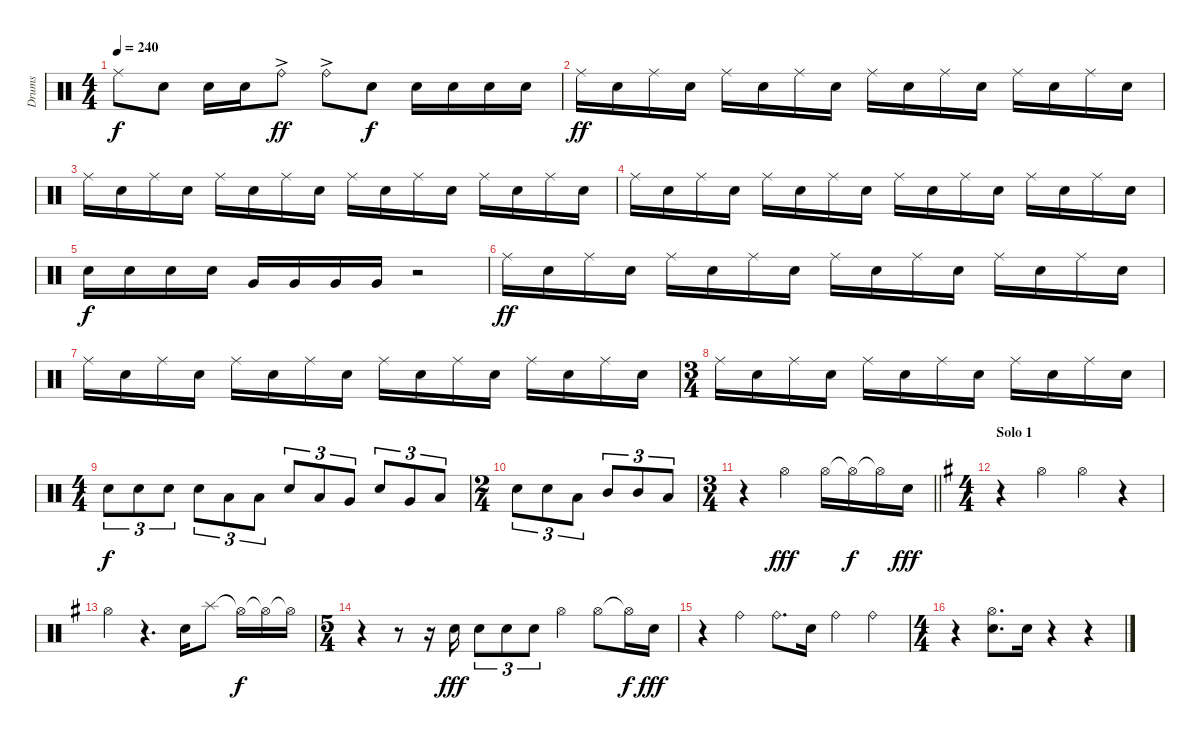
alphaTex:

\track ("Drums" "Drums") {instrument percussion}
\staff {score}
\articulation defaults
\ts (4 4)
\tempo 240
\clef neutral
\ks c "Ride (middle)".8{dy f volume 14} "Electric Snare (hit)".8 "Electric Snare (hit)".16 "Electric Snare (hit)".16 "Ride (bell)"{ac}.8{dy ff} "Ride (bell)"{ac}.8 "Electric Snare (hit)".8{dy f} "Electric Snare (hit)".16 "Electric Snare (hit)".16 "Electric Snare (hit)".16 "Electric Snare (hit)".16
|
"Ride (middle)".16{dy ff} "Electric Snare (hit)".16 "Ride (middle)".16 "Electric Snare (hit)".16 "Ride (middle)".16 "Electric Snare (hit)".16 "Ride (middle)".16 "Electric Snare (hit)".16 "Ride (middle)".16 "Electric Snare (hit)".16 "Ride (middle)".16 "Electric Snare (hit)".16 "Ride (middle)".16 "Electric Snare (hit)".16 "Ride (middle)".16 "Electric Snare (hit)".16 |
"Ride (middle)".16 "Electric Snare (hit)".16 "Ride (middle)".16 "Electric Snare (hit)".16 "Ride (middle)".16 "Electric Snare (hit)".16 "Ride (middle)".16 "Electric Snare (hit)".16 "Ride (middle)".16 "Electric Snare (hit)".16 "Ride (middle)".16 "Electric Snare (hit)".16 "Ride (middle)".16 "Electric Snare (hit)".16 "Ride (middle)".16 "Electric Snare (hit)".16 |
"Ride (middle)".16 "Electric Snare (hit)".16 "Ride (middle)".16 "Electric Snare (hit)".16 "Ride (middle)".16 "Electric Snare (hit)".16 "Ride (middle)".16 "Electric Snare (hit)".16 "Ride (middle)".16 "Electric Snare (hit)".16 "Ride (middle)".16 "Electric Snare (hit)".16 "Ride (middle)".16 "Electric Snare (hit)".16 "Ride (middle)".16 "Electric Snare (hit)".16 |
"Electric Snare (hit)".16{dy f} "Electric Snare (hit)".16 "Electric Snare (hit)".16 "Electric Snare (hit)".16 "Very Low Tom (hit)".16 "Very Low Tom (hit)".16 "Very Low Tom (hit)".16 "Very Low Tom (hit)".16 r.2 |
"Ride (middle)".16{dy ff} "Electric Snare (hit)".16 "Ride (middle)".16 "Electric Snare (hit)".16 "Ride (middle)".16 "Electric Snare (hit)".16 "Ride (middle)".16 "Electric Snare (hit)".16 "Ride (middle)".16 "Electric Snare (hit)".16 "Ride (middle)".16 "Electric Snare (hit)".16 "Ride (middle)".16 "Electric Snare (hit)".16 "Ride (middle)".16 "Electric Snare (hit)".16 |
"Ride (middle)".16 "Electric Snare (hit)".16 "Ride (middle)".16 "Electric Snare (hit)".16 "Ride (middle)".16 "Electric Snare (hit)".16 "Ride (middle)".16 "Electric Snare (hit)".16 "Ride (middle)".16 "Electric Snare (hit)".16 "Ride (middle)".16 "Electric Snare (hit)".16 "Ride (middle)".16 "Electric Snare (hit)".16 "Ride (middle)".16 "Electric Snare (hit)".16 |
\ts (3 4)
"Ride (middle)".16 "Electric Snare (hit)".16 "Ride (middle)".16 "Electric Snare (hit)".16 "Ride (middle)".16 "Electric Snare (hit)".16 "Ride (middle)".16 "Electric Snare (hit)".16 "Ride (middle)".16 "Electric Snare (hit)".16 "Ride (middle)".16 "Electric Snare (hit)".16 |
\ts (4 4)
"Electric Snare (hit)".8{tu (3 2) dy f} "Electric Snare (hit)".8{tu (3 2)} "Electric Snare (hit)".8{tu (3 2)} "Electric Snare (hit)".8{tu (3 2)} "Low Tom (hit)".8{tu (3 2)} "Low Tom (hit)".8{tu (3 2)} "Electric Snare (hit)".8{tu (3 2)} "Low Tom (hit)".8{tu (3 2)} "Very Low Tom (hit)".8{tu (3 2)} "Electric Snare (hit)".8{tu (3 2)} "Very Low Tom (hit)".8{tu (3 2)} "Low Floor Tom (hit)".8{tu (3 2)} |
\ts (2 4)
"Electric Snare (hit)".8{tu (3 2)} "Electric Snare (hit)".8{tu (3 2)} "Low Tom (hit)".8{tu (3 2)} "Mid Tom (hit)".8{tu (3 2)} "Mid Tom (hit)".8{tu (3 2)} "Low Tom (hit)".8{tu (3 2)} |
\ts (3 4)
\barLineRight lightlight
r.4 "Hi-Hat (open)".4{dy fff} "Hi-Hat (open)".16 "Hi-Hat (open)"{t}.16{dy f} "Hi-Hat (open)"{t}.16 "Electric Snare (hit)".16{dy fff} |
\ts (4 4)
\section ("" "Solo 1")
\ks g
r.4 "Hi-Hat (open)".4 "Hi-Hat (open)".4 r.4 |
"Hi-Hat (open)".4 r.4{d} "Electric Snare (hit)".16 "Splash (hit)".8 "Hi-Hat (open)"{t}.16{dy f} "Hi-Hat (open)"{t}.16 "Hi-Hat (open)"{t}.16 |
\ts (5 4)
r.4 r.8 r.16 "Electric Snare (hit)".16{dy fff} "Electric Snare (hit)".8{tu (3 2)} "Electric Snare (hit)".8{tu (3 2)} "Electric Snare (hit)".8{tu (3 2)} "Hi-Hat (open)".4 "Hi-Hat (open)".8 "Hi-Hat (open)"{t}.16{dy f} "Electric Snare (hit)".16{dy fff} |
r.4 "Ride (bell)".4 "Ride (bell)".8{d} "Electric Snare (hit)".16 "Ride (bell)".4 "Ride (bell)".4 |
\ts (4 4)
r.4 ("Hi-Hat (open)" "Electric Snare (hit)").8{d} "Electric Snare (hit)".16 r.4 r.4
